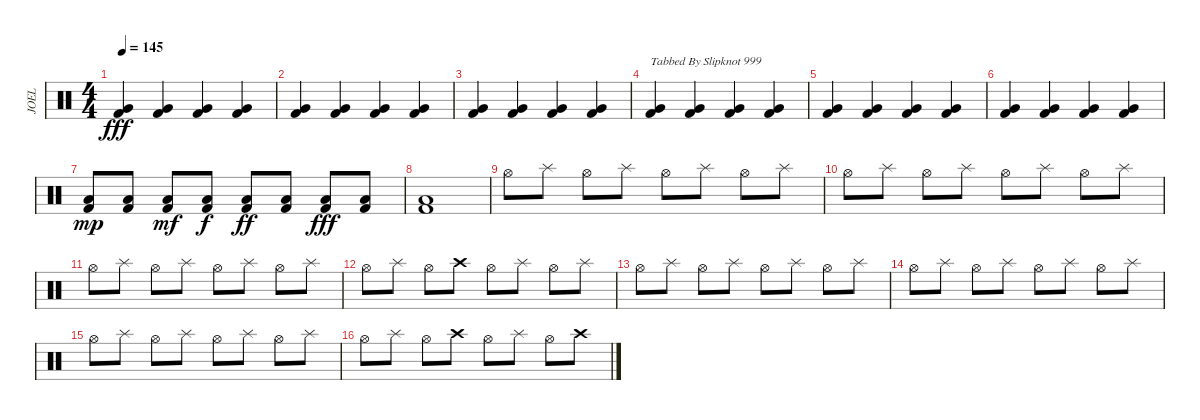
\track ("JOEL" "JOEL") {instrument percussion}
\staff {score}
\articulation defaults
\ts (4 4)
\tempo 145
\clef neutral
\ks c
("Very Low Tom (hit)" "Kick (hit) 2").4{dy fff} ("Very Low Tom (hit)" "Kick (hit) 2").4 ("Very Low Tom (hit)" "Kick (hit) 2").4 ("Very Low Tom (hit)" "Kick (hit) 2").4 |
("Very Low Tom (hit)" "Kick (hit) 2").4 ("Very Low Tom (hit)" "Kick (hit) 2").4 ("Very Low Tom (hit)" "Kick (hit) 2").4 ("Very Low Tom (hit)" "Kick (hit) 2").4 |
("Very Low Tom (hit)" "Kick (hit) 2").4 ("Very Low Tom (hit)" "Kick (hit) 2").4 ("Very Low Tom (hit)" "Kick (hit) 2").4 ("Very Low Tom (hit)" "Kick (hit) 2").4 |
("Very Low Tom (hit)" "Kick (hit) 2").4{txt "Tabbed By Slipknot 999"} ("Very Low Tom (hit)" "Kick (hit) 2").4 ("Very Low Tom (hit)" "Kick (hit) 2").4 ("Very Low Tom (hit)" "Kick (hit) 2").4 |
("Very Low Tom (hit)" "Kick (hit) 2").4 ("Very Low Tom (hit)" "Kick (hit) 2").4 ("Very Low Tom (hit)" "Kick (hit) 2").4 ("Very Low Tom (hit)" "Kick (hit) 2").4 |
("Very Low Tom (hit)" "Kick (hit) 2").4 ("Very Low Tom (hit)" "Kick (hit) 2").4 ("Very Low Tom (hit)" "Kick (hit) 2").4 ("Very Low Tom (hit)" "Kick (hit) 2").4 |
("Low Floor Tom (hit)" "Kick (hit) 2").8{dy mp} ("Low Floor Tom (hit)" "Kick (hit) 2").8 ("Low Floor Tom (hit)" "Kick (hit) 2").8{dy mf} ("Low Floor Tom (hit)" "Kick (hit) 2").8{dy f} ("Low Floor Tom (hit)" "Kick (hit) 2").8{dy ff} ("Low Floor Tom (hit)" "Kick (hit) 2").8 ("Low Floor Tom (hit)" "Kick (hit) 2").8{dy fff} ("Low Floor Tom (hit)" "Kick (hit) 2").8 |
("Low Floor Tom (hit)" "Kick (hit) 2").1 |
"Hi-Hat (open)".8 "Splash (hit)".8 "Hi-Hat (open)".8 "Splash (hit)".8 "Hi-Hat (open)".8 "Splash (hit)".8 "Hi-Hat (open)".8 "Splash (hit)".8 |
"Hi-Hat (open)".8 "Splash (hit)".8 "Hi-Hat (open)".8 "Splash (hit)".8 "Hi-Hat (open)".8 "Splash (hit)".8 "Hi-Hat (open)".8 "Splash (hit)".8 |
"Hi-Hat (open)".8 "Splash (hit)".8 "Hi-Hat (open)".8 "Splash (hit)".8 "Hi-Hat (open)".8 "Splash (hit)".8 "Hi-Hat (open)".8 "Splash (hit)".8 |
"Hi-Hat (open)".8 "Splash (hit)".8 "Hi-Hat (open)".8 "Crash high (hit)".8 "Hi-Hat (open)".8 "Splash (hit)".8 "Hi-Hat (open)".8 "Splash (hit)".8 |
"Hi-Hat (open)".8 "Splash (hit)".8 "Hi-Hat (open)".8 "Splash (hit)".8 "Hi-Hat (open)".8 "Splash (hit)".8 "Hi-Hat (open)".8 "Splash (hit)".8 |
"Hi-Hat (open)".8 "Splash (hit)".8 "Hi-Hat (open)".8 "Splash (hit)".8 "Hi-Hat (open)".8 "Splash (hit)".8 "Hi-Hat (open)".8 "Splash (hit)".8 |
"Hi-Hat (open)".8 "Splash (hit)".8 "Hi-Hat (open)".8 "Splash (hit)".8 "Hi-Hat (open)".8 "Splash (hit)".8 "Hi-Hat (open)".8 "Splash (hit)".8 |
"Hi-Hat (open)".8 "Splash (hit)".8 "Hi-Hat (open)".8 "Crash high (hit)".8 "Hi-Hat (open)".8 "Splash (hit)".8 "Hi-Hat (open)".8 "Crash high (hit)".8
